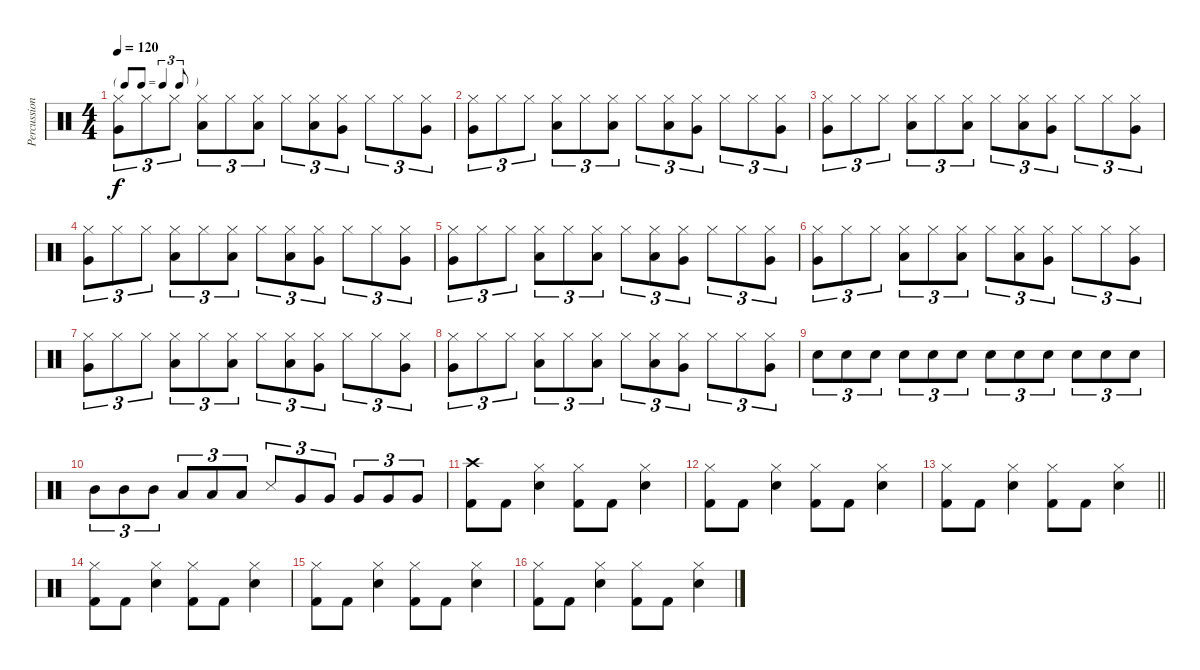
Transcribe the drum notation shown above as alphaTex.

\track ("Percussion" "Percussion") {instrument percussion}
\staff {score}
\articulation defaults
\ts (4 4)
\tf triplet8th
\tempo 120
\clef neutral
\ks c
("Hi-Hat (closed)" "Very Low Tom (hit)").8{tu (3 2) dy f} "Hi-Hat (closed)".8{tu (3 2)} "Hi-Hat (closed)".8{tu (3 2)} ("Hi-Hat (closed)" "Low Tom (hit)").8{tu (3 2)} "Hi-Hat (closed)".8{tu (3 2)} ("Hi-Hat (closed)" "Low Tom (hit)").8{tu (3 2)} "Hi-Hat (closed)".8{tu (3 2)} ("Hi-Hat (closed)" "Low Tom (hit)").8{tu (3 2)} ("Hi-Hat (closed)" "Very Low Tom (hit)").8{tu (3 2)} "Hi-Hat (closed)".8{tu (3 2)} "Hi-Hat (closed)".8{tu (3 2)} ("Hi-Hat (closed)" "Very Low Tom (hit)").8{tu (3 2)} |
("Hi-Hat (closed)" "Very Low Tom (hit)").8{tu (3 2)} "Hi-Hat (closed)".8{tu (3 2)} "Hi-Hat (closed)".8{tu (3 2)} ("Hi-Hat (closed)" "Low Tom (hit)").8{tu (3 2)} "Hi-Hat (closed)".8{tu (3 2)} ("Hi-Hat (closed)" "Low Tom (hit)").8{tu (3 2)} "Hi-Hat (closed)".8{tu (3 2)} ("Hi-Hat (closed)" "Low Tom (hit)").8{tu (3 2)} ("Hi-Hat (closed)" "Very Low Tom (hit)").8{tu (3 2)} "Hi-Hat (closed)".8{tu (3 2)} "Hi-Hat (closed)".8{tu (3 2)} ("Hi-Hat (closed)" "Very Low Tom (hit)").8{tu (3 2)} |
("Hi-Hat (closed)" "Very Low Tom (hit)").8{tu (3 2)} "Hi-Hat (closed)".8{tu (3 2)} "Hi-Hat (closed)".8{tu (3 2)} ("Hi-Hat (closed)" "Low Tom (hit)").8{tu (3 2)} "Hi-Hat (closed)".8{tu (3 2)} ("Hi-Hat (closed)" "Low Tom (hit)").8{tu (3 2)} "Hi-Hat (closed)".8{tu (3 2)} ("Hi-Hat (closed)" "Low Tom (hit)").8{tu (3 2)} ("Hi-Hat (closed)" "Very Low Tom (hit)").8{tu (3 2)} "Hi-Hat (closed)".8{tu (3 2)} "Hi-Hat (closed)".8{tu (3 2)} ("Hi-Hat (closed)" "Very Low Tom (hit)").8{tu (3 2)} |
("Hi-Hat (closed)" "Very Low Tom (hit)").8{tu (3 2)} "Hi-Hat (closed)".8{tu (3 2)} "Hi-Hat (closed)".8{tu (3 2)} ("Hi-Hat (closed)" "Low Tom (hit)").8{tu (3 2)} "Hi-Hat (closed)".8{tu (3 2)} ("Hi-Hat (closed)" "Low Tom (hit)").8{tu (3 2)} "Hi-Hat (closed)".8{tu (3 2)} ("Hi-Hat (closed)" "Low Tom (hit)").8{tu (3 2)} ("Hi-Hat (closed)" "Very Low Tom (hit)").8{tu (3 2)} "Hi-Hat (closed)".8{tu (3 2)} "Hi-Hat (closed)".8{tu (3 2)} ("Hi-Hat (closed)" "Very Low Tom (hit)").8{tu (3 2)} |
("Hi-Hat (closed)" "Very Low Tom (hit)").8{tu (3 2)} "Hi-Hat (closed)".8{tu (3 2)} "Hi-Hat (closed)".8{tu (3 2)} ("Hi-Hat (closed)" "Low Tom (hit)").8{tu (3 2)} "Hi-Hat (closed)".8{tu (3 2)} ("Hi-Hat (closed)" "Low Tom (hit)").8{tu (3 2)} "Hi-Hat (closed)".8{tu (3 2)} ("Hi-Hat (closed)" "Low Tom (hit)").8{tu (3 2)} ("Hi-Hat (closed)" "Very Low Tom (hit)").8{tu (3 2)} "Hi-Hat (closed)".8{tu (3 2)} "Hi-Hat (closed)".8{tu (3 2)} ("Hi-Hat (closed)" "Very Low Tom (hit)").8{tu (3 2)} |
("Hi-Hat (closed)" "Very Low Tom (hit)").8{tu (3 2)} "Hi-Hat (closed)".8{tu (3 2)} "Hi-Hat (closed)".8{tu (3 2)} ("Hi-Hat (closed)" "Low Tom (hit)").8{tu (3 2)} "Hi-Hat (closed)".8{tu (3 2)} ("Hi-Hat (closed)" "Low Tom (hit)").8{tu (3 2)} "Hi-Hat (closed)".8{tu (3 2)} ("Hi-Hat (closed)" "Low Tom (hit)").8{tu (3 2)} ("Hi-Hat (closed)" "Very Low Tom (hit)").8{tu (3 2)} "Hi-Hat (closed)".8{tu (3 2)} "Hi-Hat (closed)".8{tu (3 2)} ("Hi-Hat (closed)" "Very Low Tom (hit)").8{tu (3 2)} |
("Hi-Hat (closed)" "Very Low Tom (hit)").8{tu (3 2)} "Hi-Hat (closed)".8{tu (3 2)} "Hi-Hat (closed)".8{tu (3 2)} ("Hi-Hat (closed)" "Low Tom (hit)").8{tu (3 2)} "Hi-Hat (closed)".8{tu (3 2)} ("Hi-Hat (closed)" "Low Tom (hit)").8{tu (3 2)} "Hi-Hat (closed)".8{tu (3 2)} ("Hi-Hat (closed)" "Low Tom (hit)").8{tu (3 2)} ("Hi-Hat (closed)" "Very Low Tom (hit)").8{tu (3 2)} "Hi-Hat (closed)".8{tu (3 2)} "Hi-Hat (closed)".8{tu (3 2)} ("Hi-Hat (closed)" "Very Low Tom (hit)").8{tu (3 2)} |
("Hi-Hat (closed)" "Very Low Tom (hit)").8{tu (3 2)} "Hi-Hat (closed)".8{tu (3 2)} "Hi-Hat (closed)".8{tu (3 2)} ("Hi-Hat (closed)" "Low Tom (hit)").8{tu (3 2)} "Hi-Hat (closed)".8{tu (3 2)} ("Hi-Hat (closed)" "Low Tom (hit)").8{tu (3 2)} "Hi-Hat (closed)".8{tu (3 2)} ("Hi-Hat (closed)" "Low Tom (hit)").8{tu (3 2)} ("Hi-Hat (closed)" "Very Low Tom (hit)").8{tu (3 2)} "Hi-Hat (closed)".8{tu (3 2)} "Hi-Hat (closed)".8{tu (3 2)} ("Hi-Hat (closed)" "Very Low Tom (hit)").8{tu (3 2)} |
"Electric Snare (hit)".8{tu (3 2)} "Electric Snare (hit)".8{tu (3 2)} "Electric Snare (hit)".8{tu (3 2)} "Electric Snare (hit)".8{tu (3 2)} "Electric Snare (hit)".8{tu (3 2)} "Electric Snare (hit)".8{tu (3 2)} "Electric Snare (hit)".8{tu (3 2)} "Electric Snare (hit)".8{tu (3 2)} "Electric Snare (hit)".8{tu (3 2)} "Electric Snare (hit)".8{tu (3 2)} "Electric Snare (hit)".8{tu (3 2)} "Electric Snare (hit)".8{tu (3 2)} |
"Mid Tom (hit)".8{tu (3 2)} "Mid Tom (hit)".8{tu (3 2)} "Mid Tom (hit)".8{tu (3 2)} "Low Tom (hit)".8{tu (3 2)} "Low Tom (hit)".8{tu (3 2)} "Low Tom (hit)".8{tu (3 2)} "Snare (side stick) 3".8{tu (3 2)} "Very Low Tom (hit)".8{tu (3 2)} "Very Low Tom (hit)".8{tu (3 2)} "Very Low Tom (hit)".8{tu (3 2)} "Very Low Tom (hit)".8{tu (3 2)} "Very Low Tom (hit)".8{tu (3 2)} |
("Crash high (hit)" "Kick (hit) 2").8 "Kick (hit) 2".8 ("Hi-Hat (closed)" "Electric Snare (hit)").4 ("Hi-Hat (closed)" "Kick (hit) 2").8 "Kick (hit) 2".8 ("Hi-Hat (closed)" "Electric Snare (hit)").4 |
("Hi-Hat (closed)" "Kick (hit) 2").8 "Kick (hit) 2".8 ("Hi-Hat (closed)" "Electric Snare (hit)").4 ("Hi-Hat (closed)" "Kick (hit) 2").8 "Kick (hit) 2".8 ("Hi-Hat (closed)" "Electric Snare (hit)").4 |
\barLineRight lightlight
("Hi-Hat (closed)" "Kick (hit) 2").8 "Kick (hit) 2".8 ("Hi-Hat (closed)" "Electric Snare (hit)").4 ("Hi-Hat (closed)" "Kick (hit) 2").8 "Kick (hit) 2".8 ("Hi-Hat (closed)" "Electric Snare (hit)").4 |
("Hi-Hat (closed)" "Kick (hit) 2").8 "Kick (hit) 2".8 ("Hi-Hat (closed)" "Electric Snare (hit)").4 ("Hi-Hat (closed)" "Kick (hit) 2").8 "Kick (hit) 2".8 ("Hi-Hat (closed)" "Electric Snare (hit)").4 |
("Hi-Hat (closed)" "Kick (hit) 2").8 "Kick (hit) 2".8 ("Hi-Hat (closed)" "Electric Snare (hit)").4 ("Hi-Hat (closed)" "Kick (hit) 2").8 "Kick (hit) 2".8 ("Hi-Hat (closed)" "Electric Snare (hit)").4 |
("Hi-Hat (closed)" "Kick (hit) 2").8 "Kick (hit) 2".8 ("Hi-Hat (closed)" "Electric Snare (hit)").4 ("Hi-Hat (closed)" "Kick (hit) 2").8 "Kick (hit) 2".8 ("Hi-Hat (closed)" "Electric Snare (hit)").4
